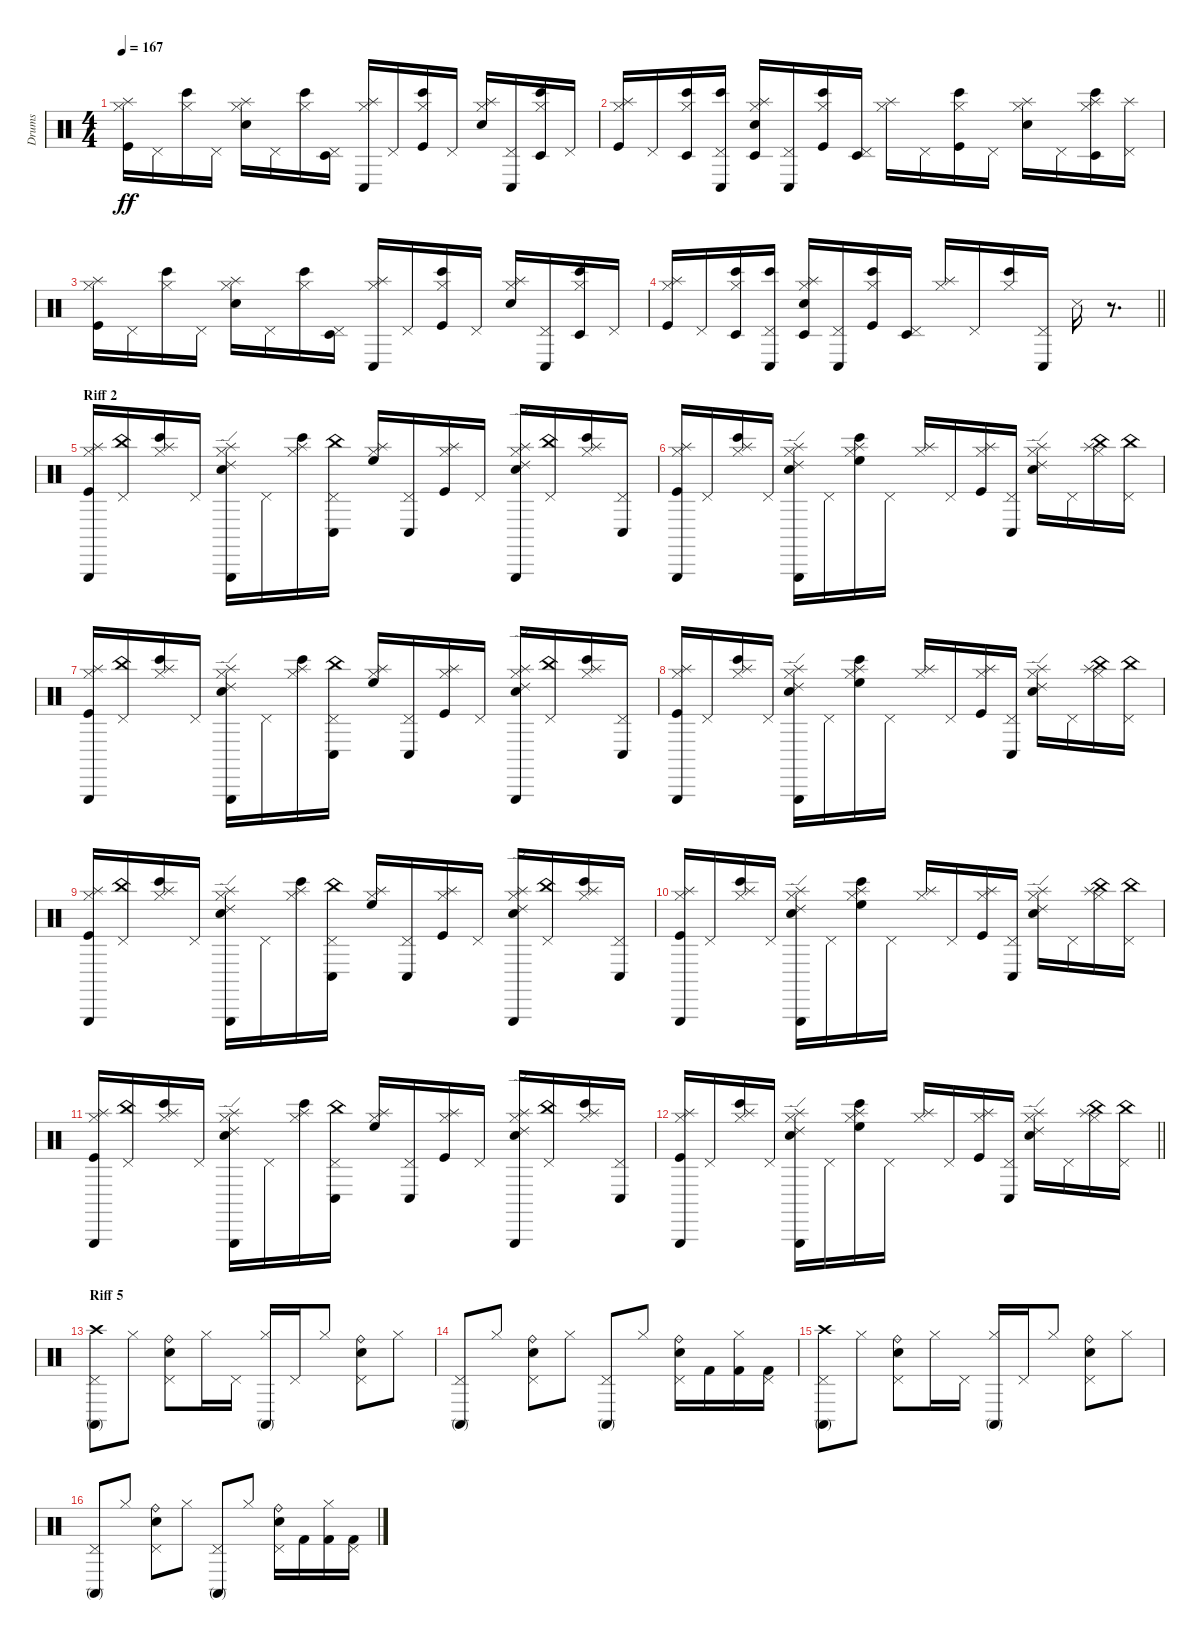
\track ("Drums" "Drums") {instrument percussion}
\staff {score}
\articulation defaults
\ts (4 4)
\tempo 167
\clef neutral
\ks c
("Kick (hit)" "Hi-Hat (closed)" "Splash (hit)").16{dy ff} "Pedal Hi-Hat (hit)".16 ("Hi-Hat (closed)" "Bongo High (hit)").16 "Pedal Hi-Hat (hit)".16 ("Electric Snare (hit)" "Hi-Hat (closed)" "Splash (hit)").16 "Pedal Hi-Hat (hit)".16 ("Hi-Hat (closed)" "Bongo High (hit)").16 ("Pedal Hi-Hat (hit)" "Timbale low (hit)").16 ("Hi-Hat (closed)" "Splash (hit)" "Conga low (hit)").16 "Pedal Hi-Hat (hit)".16 ("Kick (hit)" "Hi-Hat (closed)" "Bongo High (hit)").16 "Pedal Hi-Hat (hit)".16 ("Electric Snare (hit)" "Hi-Hat (closed)" "Splash (hit)").16 ("Pedal Hi-Hat (hit)" "Conga low (hit)").16 ("Hi-Hat (closed)" "Bongo High (hit)" "Timbale low (hit)").16 "Pedal Hi-Hat (hit)".16 |
("Kick (hit)" "Hi-Hat (closed)" "Splash (hit)").16 "Pedal Hi-Hat (hit)".16 ("Hi-Hat (closed)" "Bongo High (hit)" "Timbale low (hit)").16 ("Pedal Hi-Hat (hit)" "Bongo High (hit)" "Conga low (hit)").16 ("Electric Snare (hit)" "Hi-Hat (closed)" "Splash (hit)" "Timbale low (hit)").16 ("Pedal Hi-Hat (hit)" "Conga low (hit)").16 ("Kick (hit)" "Hi-Hat (closed)" "Bongo High (hit)").16 ("Pedal Hi-Hat (hit)" "Timbale low (hit)").16 ("Hi-Hat (closed)" "Splash (hit)").16 "Pedal Hi-Hat (hit)".16 ("Kick (hit)" "Hi-Hat (closed)" "Bongo High (hit)").16 "Pedal Hi-Hat (hit)".16 ("Electric Snare (hit)" "Hi-Hat (closed)" "Splash (hit)").16 "Pedal Hi-Hat (hit)".16 ("Hi-Hat (closed)" "Splash (hit)" "Bongo High (hit)" "Timbale low (hit)").16 ("Pedal Hi-Hat (hit)" "Splash (hit)").16 |
("Kick (hit)" "Hi-Hat (closed)" "Splash (hit)").16 "Pedal Hi-Hat (hit)".16 ("Hi-Hat (closed)" "Bongo High (hit)").16 "Pedal Hi-Hat (hit)".16 ("Electric Snare (hit)" "Hi-Hat (closed)" "Splash (hit)").16 "Pedal Hi-Hat (hit)".16 ("Hi-Hat (closed)" "Bongo High (hit)").16 ("Pedal Hi-Hat (hit)" "Timbale low (hit)").16 ("Hi-Hat (closed)" "Splash (hit)" "Conga low (hit)").16 "Pedal Hi-Hat (hit)".16 ("Kick (hit)" "Hi-Hat (closed)" "Bongo High (hit)").16 "Pedal Hi-Hat (hit)".16 ("Electric Snare (hit)" "Hi-Hat (closed)" "Splash (hit)").16 ("Pedal Hi-Hat (hit)" "Conga low (hit)").16 ("Hi-Hat (closed)" "Bongo High (hit)" "Timbale low (hit)").16 "Pedal Hi-Hat (hit)".16 |
\barLineRight lightlight
("Kick (hit)" "Hi-Hat (closed)" "Splash (hit)").16 "Pedal Hi-Hat (hit)".16 ("Hi-Hat (closed)" "Bongo High (hit)" "Timbale low (hit)").16 ("Pedal Hi-Hat (hit)" "Bongo High (hit)" "Conga low (hit)").16 ("Electric Snare (hit)" "Hi-Hat (closed)" "Splash (hit)" "Timbale low (hit)").16 ("Pedal Hi-Hat (hit)" "Conga low (hit)").16 ("Kick (hit)" "Hi-Hat (closed)" "Bongo High (hit)").16 ("Pedal Hi-Hat (hit)" "Timbale low (hit)").16 ("Hi-Hat (closed)" "Splash (hit)").16 "Pedal Hi-Hat (hit)".16 ("Hi-Hat (closed)" "Bongo High (hit)").16 ("Pedal Hi-Hat (hit)" "Conga low (hit)").16 "Snare (side stick) 3".16 r.8{d} |
\section ("" "Riff 2")
("Kick (hit)" "Hi-Hat (closed)" "Splash (hit)" "Triangle (hit)").16 ("Pedal Hi-Hat (hit)" "China (hit)").16 ("Hi-Hat (closed)" "Splash (hit)" "Bongo High (hit)").16 "Pedal Hi-Hat (hit)".16 ("Electric Snare (hit)" "Hi-Hat (closed)" "Splash (hit)" "Ride (edge) 2" "Triangle (hit)").16 "Pedal Hi-Hat (hit)".16 ("Hi-Hat (closed)" "Splash (hit)" "Bongo High (hit)").16 ("Pedal Hi-Hat (hit)" "China (hit)" "Conga low (hit)").16 ("Hi-Hat (closed)" "High Floor Tom (hit)" "Splash (hit)").16 ("Pedal Hi-Hat (hit)" "Conga low (hit)").16 ("Kick (hit)" "Hi-Hat (closed)" "Splash (hit)").16 "Pedal Hi-Hat (hit)".16 ("Electric Snare (hit)" "Hi-Hat (closed)" "Splash (hit)" "Ride (edge) 2" "Triangle (hit)").16 ("Pedal Hi-Hat (hit)" "China (hit)").16 ("Hi-Hat (closed)" "Splash (hit)" "Bongo High (hit)").16 ("Pedal Hi-Hat (hit)" "Conga low (hit)").16 |
("Kick (hit)" "Hi-Hat (closed)" "Splash (hit)" "Triangle (hit)").16 "Pedal Hi-Hat (hit)".16 ("Hi-Hat (closed)" "Splash (hit)" "Bongo High (hit)").16 "Pedal Hi-Hat (hit)".16 ("Electric Snare (hit)" "Hi-Hat (closed)" "Splash (hit)" "Ride (edge) 2" "Triangle (hit)").16 "Pedal Hi-Hat (hit)".16 ("Hi-Hat (closed)" "High Floor Tom (hit)" "Splash (hit)" "Bongo High (hit)").16 "Pedal Hi-Hat (hit)".16 ("Hi-Hat (closed)" "Splash (hit)").16 "Pedal Hi-Hat (hit)".16 ("Kick (hit)" "Hi-Hat (closed)" "Splash (hit)").16 ("Pedal Hi-Hat (hit)" "Conga low (hit)").16 ("Electric Snare (hit)" "Hi-Hat (closed)" "Splash (hit)" "Ride (edge) 2").16 "Pedal Hi-Hat (hit)".16 ("Hi-Hat (closed)" "China (hit)" "Splash (hit)").16 ("Pedal Hi-Hat (hit)" "China (hit)").16 |
("Kick (hit)" "Hi-Hat (closed)" "Splash (hit)" "Triangle (hit)").16 ("Pedal Hi-Hat (hit)" "China (hit)").16 ("Hi-Hat (closed)" "Splash (hit)" "Bongo High (hit)").16 "Pedal Hi-Hat (hit)".16 ("Electric Snare (hit)" "Hi-Hat (closed)" "Splash (hit)" "Ride (edge) 2" "Triangle (hit)").16 "Pedal Hi-Hat (hit)".16 ("Hi-Hat (closed)" "Splash (hit)" "Bongo High (hit)").16 ("Pedal Hi-Hat (hit)" "China (hit)" "Conga low (hit)").16 ("Hi-Hat (closed)" "High Floor Tom (hit)" "Splash (hit)").16 ("Pedal Hi-Hat (hit)" "Conga low (hit)").16 ("Kick (hit)" "Hi-Hat (closed)" "Splash (hit)").16 "Pedal Hi-Hat (hit)".16 ("Electric Snare (hit)" "Hi-Hat (closed)" "Splash (hit)" "Ride (edge) 2" "Triangle (hit)").16 ("Pedal Hi-Hat (hit)" "China (hit)").16 ("Hi-Hat (closed)" "Splash (hit)" "Bongo High (hit)").16 ("Pedal Hi-Hat (hit)" "Conga low (hit)").16 |
("Kick (hit)" "Hi-Hat (closed)" "Splash (hit)" "Triangle (hit)").16 "Pedal Hi-Hat (hit)".16 ("Hi-Hat (closed)" "Splash (hit)" "Bongo High (hit)").16 "Pedal Hi-Hat (hit)".16 ("Electric Snare (hit)" "Hi-Hat (closed)" "Splash (hit)" "Ride (edge) 2" "Triangle (hit)").16 "Pedal Hi-Hat (hit)".16 ("Hi-Hat (closed)" "High Floor Tom (hit)" "Splash (hit)" "Bongo High (hit)").16 "Pedal Hi-Hat (hit)".16 ("Hi-Hat (closed)" "Splash (hit)").16 "Pedal Hi-Hat (hit)".16 ("Kick (hit)" "Hi-Hat (closed)" "Splash (hit)").16 ("Pedal Hi-Hat (hit)" "Conga low (hit)").16 ("Electric Snare (hit)" "Hi-Hat (closed)" "Splash (hit)" "Ride (edge) 2").16 "Pedal Hi-Hat (hit)".16 ("Hi-Hat (closed)" "China (hit)" "Splash (hit)").16 ("Pedal Hi-Hat (hit)" "China (hit)").16 |
("Kick (hit)" "Hi-Hat (closed)" "Splash (hit)" "Triangle (hit)").16 ("Pedal Hi-Hat (hit)" "China (hit)").16 ("Hi-Hat (closed)" "Splash (hit)" "Bongo High (hit)").16 "Pedal Hi-Hat (hit)".16 ("Electric Snare (hit)" "Hi-Hat (closed)" "Splash (hit)" "Ride (edge) 2" "Triangle (hit)").16 "Pedal Hi-Hat (hit)".16 ("Hi-Hat (closed)" "Splash (hit)" "Bongo High (hit)").16 ("Pedal Hi-Hat (hit)" "China (hit)" "Conga low (hit)").16 ("Hi-Hat (closed)" "High Floor Tom (hit)" "Splash (hit)").16 ("Pedal Hi-Hat (hit)" "Conga low (hit)").16 ("Kick (hit)" "Hi-Hat (closed)" "Splash (hit)").16 "Pedal Hi-Hat (hit)".16 ("Electric Snare (hit)" "Hi-Hat (closed)" "Splash (hit)" "Ride (edge) 2" "Triangle (hit)").16 ("Pedal Hi-Hat (hit)" "China (hit)").16 ("Hi-Hat (closed)" "Splash (hit)" "Bongo High (hit)").16 ("Pedal Hi-Hat (hit)" "Conga low (hit)").16 |
("Kick (hit)" "Hi-Hat (closed)" "Splash (hit)" "Triangle (hit)").16 "Pedal Hi-Hat (hit)".16 ("Hi-Hat (closed)" "Splash (hit)" "Bongo High (hit)").16 "Pedal Hi-Hat (hit)".16 ("Electric Snare (hit)" "Hi-Hat (closed)" "Splash (hit)" "Ride (edge) 2" "Triangle (hit)").16 "Pedal Hi-Hat (hit)".16 ("Hi-Hat (closed)" "High Floor Tom (hit)" "Splash (hit)" "Bongo High (hit)").16 "Pedal Hi-Hat (hit)".16 ("Hi-Hat (closed)" "Splash (hit)").16 "Pedal Hi-Hat (hit)".16 ("Kick (hit)" "Hi-Hat (closed)" "Splash (hit)").16 ("Pedal Hi-Hat (hit)" "Conga low (hit)").16 ("Electric Snare (hit)" "Hi-Hat (closed)" "Splash (hit)" "Ride (edge) 2").16 "Pedal Hi-Hat (hit)".16 ("Hi-Hat (closed)" "China (hit)" "Splash (hit)").16 ("Pedal Hi-Hat (hit)" "China (hit)").16 |
("Kick (hit)" "Hi-Hat (closed)" "Splash (hit)" "Triangle (hit)").16 ("Pedal Hi-Hat (hit)" "China (hit)").16 ("Hi-Hat (closed)" "Splash (hit)" "Bongo High (hit)").16 "Pedal Hi-Hat (hit)".16 ("Electric Snare (hit)" "Hi-Hat (closed)" "Splash (hit)" "Ride (edge) 2" "Triangle (hit)").16 "Pedal Hi-Hat (hit)".16 ("Hi-Hat (closed)" "Splash (hit)" "Bongo High (hit)").16 ("Pedal Hi-Hat (hit)" "China (hit)" "Conga low (hit)").16 ("Hi-Hat (closed)" "High Floor Tom (hit)" "Splash (hit)").16 ("Pedal Hi-Hat (hit)" "Conga low (hit)").16 ("Kick (hit)" "Hi-Hat (closed)" "Splash (hit)").16 "Pedal Hi-Hat (hit)".16 ("Electric Snare (hit)" "Hi-Hat (closed)" "Splash (hit)" "Ride (edge) 2" "Triangle (hit)").16 ("Pedal Hi-Hat (hit)" "China (hit)").16 ("Hi-Hat (closed)" "Splash (hit)" "Bongo High (hit)").16 ("Pedal Hi-Hat (hit)" "Conga low (hit)").16 |
\barLineRight lightlight
("Kick (hit)" "Hi-Hat (closed)" "Splash (hit)" "Triangle (hit)").16 "Pedal Hi-Hat (hit)".16 ("Hi-Hat (closed)" "Splash (hit)" "Bongo High (hit)").16 "Pedal Hi-Hat (hit)".16 ("Electric Snare (hit)" "Hi-Hat (closed)" "Splash (hit)" "Ride (edge) 2" "Triangle (hit)").16 "Pedal Hi-Hat (hit)".16 ("Hi-Hat (closed)" "High Floor Tom (hit)" "Splash (hit)" "Bongo High (hit)").16 "Pedal Hi-Hat (hit)".16 ("Hi-Hat (closed)" "Splash (hit)").16 "Pedal Hi-Hat (hit)".16 ("Kick (hit)" "Hi-Hat (closed)" "Splash (hit)").16 ("Pedal Hi-Hat (hit)" "Conga low (hit)").16 ("Electric Snare (hit)" "Hi-Hat (closed)" "Splash (hit)" "Ride (edge) 2").16 "Pedal Hi-Hat (hit)".16 ("Hi-Hat (closed)" "China (hit)" "Splash (hit)").16 ("Pedal Hi-Hat (hit)" "China (hit)").16 |
\section ("" "Riff 5")
("Pedal Hi-Hat (hit)" "Conga high (mute)" "Crash high (hit)").8 "Hi-Hat (closed)".8 ("Ride (bell)" "Pedal Hi-Hat (hit)" "Snare (hit) 2").8 "Hi-Hat (closed)".16 "Pedal Hi-Hat (hit)".16 ("Hi-Hat (closed)" "Conga high (mute)").16 "Pedal Hi-Hat (hit)".16 "Hi-Hat (closed)".8 ("Ride (bell)" "Pedal Hi-Hat (hit)" "Snare (hit) 2").8 "Hi-Hat (closed)".8 |
("Pedal Hi-Hat (hit)" "Conga high (mute)").8 "Hi-Hat (closed)".8 ("Ride (bell)" "Pedal Hi-Hat (hit)" "Snare (hit) 2").8 "Hi-Hat (closed)".8 ("Pedal Hi-Hat (hit)" "Conga high (mute)").8 "Hi-Hat (closed)".8 ("Ride (bell)" "Pedal Hi-Hat (hit)" "Snare (hit) 2").16 "Kick (hit) 2".16 ("Kick (hit) 2" "Hi-Hat (closed)").16 ("Kick (hit) 2" "Pedal Hi-Hat (hit)").16 |
("Pedal Hi-Hat (hit)" "Conga high (mute)" "Crash high (hit)").8 "Hi-Hat (closed)".8 ("Ride (bell)" "Pedal Hi-Hat (hit)" "Snare (hit) 2").8 "Hi-Hat (closed)".16 "Pedal Hi-Hat (hit)".16 ("Hi-Hat (closed)" "Conga high (mute)").16 "Pedal Hi-Hat (hit)".16 "Hi-Hat (closed)".8 ("Ride (bell)" "Pedal Hi-Hat (hit)" "Snare (hit) 2").8 "Hi-Hat (closed)".8 |
("Pedal Hi-Hat (hit)" "Conga high (mute)").8 "Hi-Hat (closed)".8 ("Ride (bell)" "Pedal Hi-Hat (hit)" "Snare (hit) 2").8 "Hi-Hat (closed)".8 ("Pedal Hi-Hat (hit)" "Conga high (mute)").8 "Hi-Hat (closed)".8 ("Ride (bell)" "Pedal Hi-Hat (hit)" "Snare (hit) 2").16 "Kick (hit) 2".16 ("Kick (hit) 2" "Hi-Hat (closed)").16 ("Kick (hit) 2" "Pedal Hi-Hat (hit)").16
